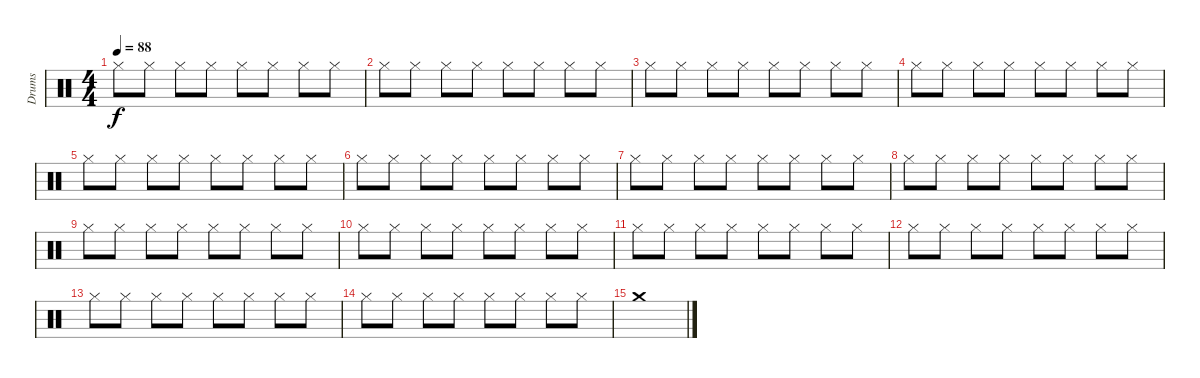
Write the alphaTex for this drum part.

\track ("Drums" "Drums") {instrument percussion}
\staff {score}
\articulation defaults
\ts (4 4)
\tempo 88
\clef neutral
\ks c "Hi-Hat (closed)".8{dy f} "Hi-Hat (closed)".8 "Hi-Hat (closed)".8 "Hi-Hat (closed)".8 "Hi-Hat (closed)".8 "Hi-Hat (closed)".8 "Hi-Hat (closed)".8 "Hi-Hat (closed)".8
|
"Hi-Hat (closed)".8 "Hi-Hat (closed)".8 "Hi-Hat (closed)".8 "Hi-Hat (closed)".8 "Hi-Hat (closed)".8 "Hi-Hat (closed)".8 "Hi-Hat (closed)".8 "Hi-Hat (closed)".8 |
"Hi-Hat (closed)".8 "Hi-Hat (closed)".8 "Hi-Hat (closed)".8 "Hi-Hat (closed)".8 "Hi-Hat (closed)".8 "Hi-Hat (closed)".8 "Hi-Hat (closed)".8 "Hi-Hat (closed)".8 |
"Hi-Hat (closed)".8 "Hi-Hat (closed)".8 "Hi-Hat (closed)".8 "Hi-Hat (closed)".8 "Hi-Hat (closed)".8 "Hi-Hat (closed)".8 "Hi-Hat (closed)".8 "Hi-Hat (closed)".8 |
"Hi-Hat (closed)".8 "Hi-Hat (closed)".8 "Hi-Hat (closed)".8 "Hi-Hat (closed)".8 "Hi-Hat (closed)".8 "Hi-Hat (closed)".8 "Hi-Hat (closed)".8 "Hi-Hat (closed)".8 |
"Hi-Hat (closed)".8 "Hi-Hat (closed)".8 "Hi-Hat (closed)".8 "Hi-Hat (closed)".8 "Hi-Hat (closed)".8 "Hi-Hat (closed)".8 "Hi-Hat (closed)".8 "Hi-Hat (closed)".8 |
"Hi-Hat (closed)".8 "Hi-Hat (closed)".8 "Hi-Hat (closed)".8 "Hi-Hat (closed)".8 "Hi-Hat (closed)".8 "Hi-Hat (closed)".8 "Hi-Hat (closed)".8 "Hi-Hat (closed)".8 |
"Hi-Hat (closed)".8 "Hi-Hat (closed)".8 "Hi-Hat (closed)".8 "Hi-Hat (closed)".8 "Hi-Hat (closed)".8 "Hi-Hat (closed)".8 "Hi-Hat (closed)".8 "Hi-Hat (closed)".8 |
"Hi-Hat (closed)".8 "Hi-Hat (closed)".8 "Hi-Hat (closed)".8 "Hi-Hat (closed)".8 "Hi-Hat (closed)".8 "Hi-Hat (closed)".8 "Hi-Hat (closed)".8 "Hi-Hat (closed)".8 |
"Hi-Hat (closed)".8 "Hi-Hat (closed)".8 "Hi-Hat (closed)".8 "Hi-Hat (closed)".8 "Hi-Hat (closed)".8 "Hi-Hat (closed)".8 "Hi-Hat (closed)".8 "Hi-Hat (closed)".8 |
"Hi-Hat (closed)".8 "Hi-Hat (closed)".8 "Hi-Hat (closed)".8 "Hi-Hat (closed)".8 "Hi-Hat (closed)".8 "Hi-Hat (closed)".8 "Hi-Hat (closed)".8 "Hi-Hat (closed)".8 |
"Hi-Hat (closed)".8 "Hi-Hat (closed)".8 "Hi-Hat (closed)".8 "Hi-Hat (closed)".8 "Hi-Hat (closed)".8 "Hi-Hat (closed)".8 "Hi-Hat (closed)".8 "Hi-Hat (closed)".8 |
"Hi-Hat (closed)".8 "Hi-Hat (closed)".8 "Hi-Hat (closed)".8 "Hi-Hat (closed)".8 "Hi-Hat (closed)".8 "Hi-Hat (closed)".8 "Hi-Hat (closed)".8 "Hi-Hat (closed)".8 |
"Hi-Hat (closed)".8 "Hi-Hat (closed)".8 "Hi-Hat (closed)".8 "Hi-Hat (closed)".8 "Hi-Hat (closed)".8 "Hi-Hat (closed)".8 "Hi-Hat (closed)".8 "Hi-Hat (closed)".8 |
"Crash medium (hit)".1
